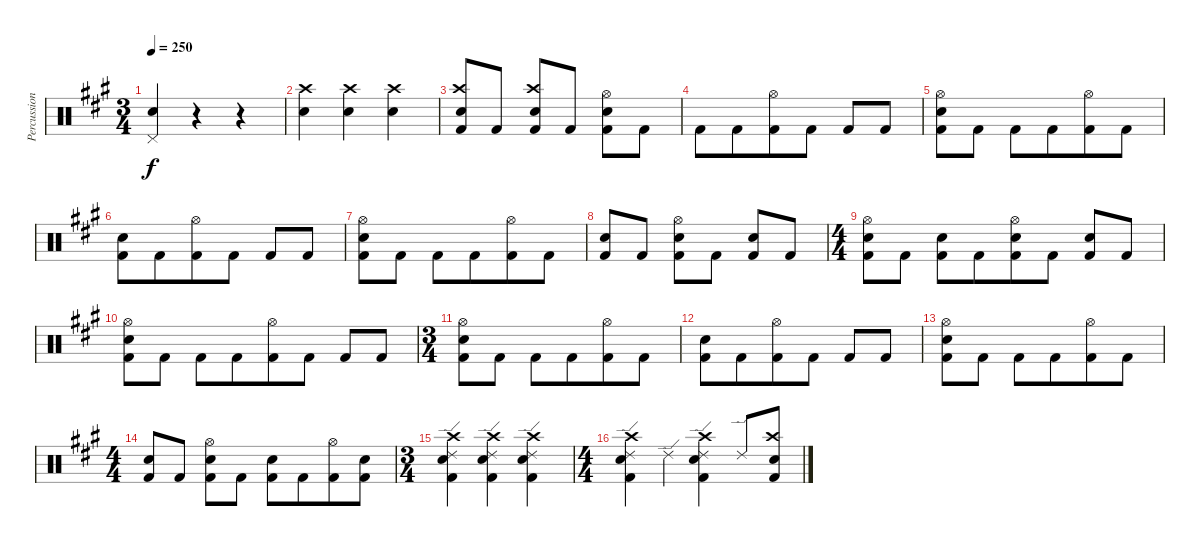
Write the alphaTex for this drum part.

\track ("Percussion" "Percussion") {instrument percussion}
\staff {score}
\articulation defaults
\ts (3 4)
\tempo 250
\clef neutral
\ks f#minor
("Pedal Hi-Hat (hit)" "Electric Snare (hit)").4{dy f} r.4 r.4 |
("Crash high (hit)" "Electric Snare (hit)").4 ("Crash high (hit)" "Electric Snare (hit)").4 ("Crash high (hit)" "Electric Snare (hit)").4 |
("Crash high (hit)" "Electric Snare (hit)" "Kick (hit) 2").8 "Kick (hit) 2".8 ("Crash high (hit)" "Electric Snare (hit)" "Kick (hit) 2").8 "Kick (hit) 2".8 ("Hi-Hat (open)" "Electric Snare (hit)" "Kick (hit) 2").8 "Kick (hit) 2".8 |
"Kick (hit) 2".8 "Kick (hit) 2".8{beam merge} ("Hi-Hat (open)" "Kick (hit) 2").8 "Kick (hit) 2".8 "Kick (hit) 2".8 "Kick (hit) 2".8 |
("Hi-Hat (open)" "Electric Snare (hit)" "Kick (hit) 2").8 "Kick (hit) 2".8 "Kick (hit) 2".8 "Kick (hit) 2".8{beam merge} ("Hi-Hat (open)" "Kick (hit) 2").8 "Kick (hit) 2".8 |
("Electric Snare (hit)" "Kick (hit) 2").8 "Kick (hit) 2".8{beam merge} ("Hi-Hat (open)" "Kick (hit) 2").8 "Kick (hit) 2".8 "Kick (hit) 2".8 "Kick (hit) 2".8 |
("Hi-Hat (open)" "Electric Snare (hit)" "Kick (hit) 2").8 "Kick (hit) 2".8 "Kick (hit) 2".8 "Kick (hit) 2".8{beam merge} ("Hi-Hat (open)" "Kick (hit) 2").8 "Kick (hit) 2".8 |
("Electric Snare (hit)" "Kick (hit) 2").8 "Kick (hit) 2".8 ("Hi-Hat (open)" "Electric Snare (hit)" "Kick (hit) 2").8 "Kick (hit) 2".8 ("Electric Snare (hit)" "Kick (hit) 2").8 "Kick (hit) 2".8 |
\ts (4 4)
("Hi-Hat (open)" "Electric Snare (hit)" "Kick (hit) 2").8 "Kick (hit) 2".8 ("Electric Snare (hit)" "Kick (hit) 2").8 "Kick (hit) 2".8{beam merge} ("Hi-Hat (open)" "Electric Snare (hit)" "Kick (hit) 2").8 "Kick (hit) 2".8 ("Electric Snare (hit)" "Kick (hit) 2").8 "Kick (hit) 2".8 |
("Hi-Hat (open)" "Electric Snare (hit)" "Kick (hit) 2").8 "Kick (hit) 2".8 "Kick (hit) 2".8 "Kick (hit) 2".8{beam merge} ("Hi-Hat (open)" "Kick (hit) 2").8 "Kick (hit) 2".8 "Kick (hit) 2".8 "Kick (hit) 2".8 |
\ts (3 4)
("Hi-Hat (open)" "Electric Snare (hit)" "Kick (hit) 2").8 "Kick (hit) 2".8 "Kick (hit) 2".8 "Kick (hit) 2".8{beam merge} ("Hi-Hat (open)" "Kick (hit) 2").8 "Kick (hit) 2".8 |
("Electric Snare (hit)" "Kick (hit) 2").8 "Kick (hit) 2".8{beam merge} ("Hi-Hat (open)" "Kick (hit) 2").8 "Kick (hit) 2".8 "Kick (hit) 2".8 "Kick (hit) 2".8 |
("Hi-Hat (open)" "Electric Snare (hit)" "Kick (hit) 2").8 "Kick (hit) 2".8 "Kick (hit) 2".8 "Kick (hit) 2".8{beam merge} ("Hi-Hat (open)" "Kick (hit) 2").8 "Kick (hit) 2".8 |
\ts (4 4)
("Electric Snare (hit)" "Kick (hit) 2").8 "Kick (hit) 2".8 ("Hi-Hat (open)" "Electric Snare (hit)" "Kick (hit) 2").8 "Kick (hit) 2".8 ("Electric Snare (hit)" "Kick (hit) 2").8 "Kick (hit) 2".8{beam merge} ("Hi-Hat (open)" "Kick (hit) 2").8 ("Electric Snare (hit)" "Kick (hit) 2").8 |
\ts (3 4)
("Crash high (hit)" "Ride (edge) 2" "Electric Snare (hit)" "Kick (hit) 2").4 ("Crash high (hit)" "Ride (edge) 2" "Electric Snare (hit)" "Kick (hit) 2").4 ("Crash high (hit)" "Ride (edge) 2" "Electric Snare (hit)" "Kick (hit) 2").4 |
\ts (4 4)
("Crash high (hit)" "Ride (edge) 2" "Electric Snare (hit)" "Kick (hit) 2").4 "Ride (edge) 2".4 ("Crash high (hit)" "Ride (edge) 2" "Electric Snare (hit)" "Kick (hit) 2").4 "Ride (edge) 2".8 ("Crash high (hit)" "Electric Snare (hit)" "Kick (hit) 2").8
